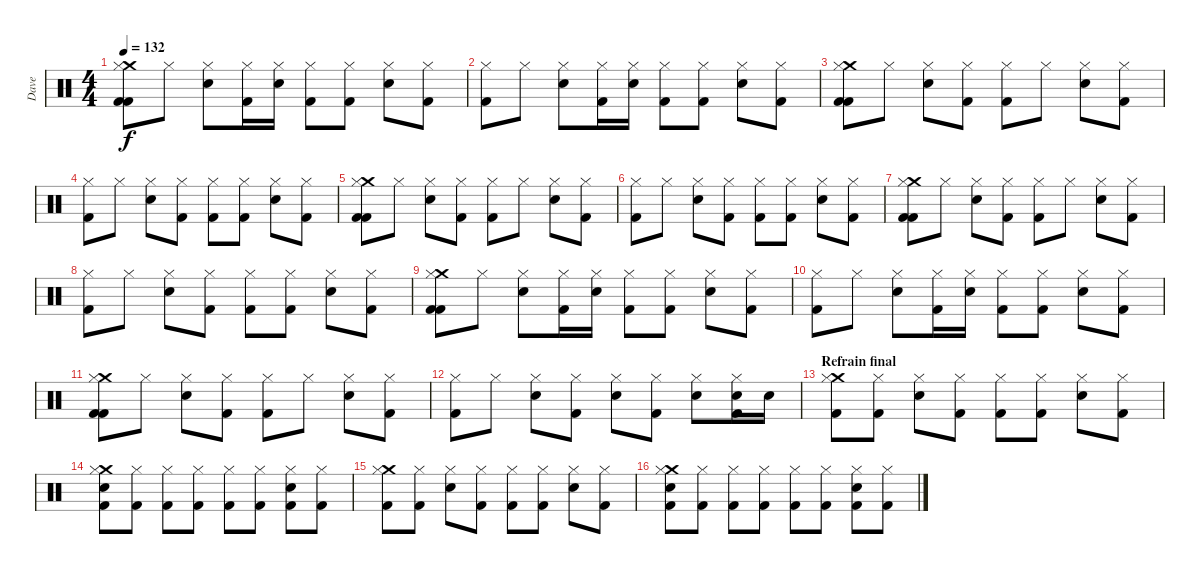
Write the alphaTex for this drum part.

\track ("Dave" "Dave") {instrument percussion}
\staff {score}
\articulation defaults
\ts (4 4)
\tempo 132
\clef neutral
\ks c
("Crash medium (hit)" "Hi-Hat (closed)" "Kick (hit) 2" "Kick (hit) 2").8{dy f} "Hi-Hat (closed)".8 ("Hi-Hat (closed)" "Electric Snare (hit)").8 ("Hi-Hat (closed)" "Kick (hit) 2").16 ("Hi-Hat (closed)" "Electric Snare (hit)").16 ("Hi-Hat (closed)" "Kick (hit) 2").8 ("Hi-Hat (closed)" "Kick (hit) 2").8 ("Hi-Hat (closed)" "Electric Snare (hit)").8 ("Hi-Hat (closed)" "Kick (hit) 2").8 |
("Hi-Hat (closed)" "Kick (hit) 2").8 "Hi-Hat (closed)".8 ("Hi-Hat (closed)" "Electric Snare (hit)").8 ("Hi-Hat (closed)" "Kick (hit) 2").16 ("Hi-Hat (closed)" "Electric Snare (hit)").16 ("Hi-Hat (closed)" "Kick (hit) 2").8 ("Hi-Hat (closed)" "Kick (hit) 2").8 ("Hi-Hat (closed)" "Electric Snare (hit)").8 ("Hi-Hat (closed)" "Kick (hit) 2").8 |
("Crash medium (hit)" "Hi-Hat (closed)" "Kick (hit) 2" "Kick (hit) 2").8 "Hi-Hat (closed)".8 ("Hi-Hat (closed)" "Electric Snare (hit)").8 ("Hi-Hat (closed)" "Kick (hit) 2").8 ("Hi-Hat (closed)" "Kick (hit) 2").8 "Hi-Hat (closed)".8 ("Hi-Hat (closed)" "Electric Snare (hit)").8 ("Hi-Hat (closed)" "Kick (hit) 2").8 |
("Hi-Hat (closed)" "Kick (hit) 2").8 "Hi-Hat (closed)".8 ("Hi-Hat (closed)" "Electric Snare (hit)").8 ("Hi-Hat (closed)" "Kick (hit) 2").8 ("Hi-Hat (closed)" "Kick (hit) 2").8 ("Hi-Hat (closed)" "Kick (hit) 2").8 ("Hi-Hat (closed)" "Electric Snare (hit)").8 ("Hi-Hat (closed)" "Kick (hit) 2").8 |
("Crash medium (hit)" "Hi-Hat (closed)" "Kick (hit) 2" "Kick (hit) 2").8 "Hi-Hat (closed)".8 ("Hi-Hat (closed)" "Electric Snare (hit)").8 ("Hi-Hat (closed)" "Kick (hit) 2").8 ("Hi-Hat (closed)" "Kick (hit) 2").8 "Hi-Hat (closed)".8 ("Hi-Hat (closed)" "Electric Snare (hit)").8 ("Hi-Hat (closed)" "Kick (hit) 2").8 |
("Hi-Hat (closed)" "Kick (hit) 2").8 "Hi-Hat (closed)".8 ("Hi-Hat (closed)" "Electric Snare (hit)").8 ("Hi-Hat (closed)" "Kick (hit) 2").8 ("Hi-Hat (closed)" "Kick (hit) 2").8 ("Hi-Hat (closed)" "Kick (hit) 2").8 ("Hi-Hat (closed)" "Electric Snare (hit)").8 ("Hi-Hat (closed)" "Kick (hit) 2").8 |
("Crash medium (hit)" "Hi-Hat (closed)" "Kick (hit) 2" "Kick (hit) 2").8 "Hi-Hat (closed)".8 ("Hi-Hat (closed)" "Electric Snare (hit)").8 ("Hi-Hat (closed)" "Kick (hit) 2").8 ("Hi-Hat (closed)" "Kick (hit) 2").8 "Hi-Hat (closed)".8 ("Hi-Hat (closed)" "Electric Snare (hit)").8 ("Hi-Hat (closed)" "Kick (hit) 2").8 |
("Hi-Hat (closed)" "Kick (hit) 2").8 "Hi-Hat (closed)".8 ("Hi-Hat (closed)" "Electric Snare (hit)").8 ("Hi-Hat (closed)" "Kick (hit) 2").8 ("Hi-Hat (closed)" "Kick (hit) 2").8 ("Hi-Hat (closed)" "Kick (hit) 2").8 ("Hi-Hat (closed)" "Electric Snare (hit)").8 ("Hi-Hat (closed)" "Kick (hit) 2").8 |
("Crash medium (hit)" "Hi-Hat (closed)" "Kick (hit) 2" "Kick (hit) 2").8 "Hi-Hat (closed)".8 ("Hi-Hat (closed)" "Electric Snare (hit)").8 ("Hi-Hat (closed)" "Kick (hit) 2").16 ("Hi-Hat (closed)" "Electric Snare (hit)").16 ("Hi-Hat (closed)" "Kick (hit) 2").8 ("Hi-Hat (closed)" "Kick (hit) 2").8 ("Hi-Hat (closed)" "Electric Snare (hit)").8 ("Hi-Hat (closed)" "Kick (hit) 2").8 |
("Hi-Hat (closed)" "Kick (hit) 2").8 "Hi-Hat (closed)".8 ("Hi-Hat (closed)" "Electric Snare (hit)").8 ("Hi-Hat (closed)" "Kick (hit) 2").16 ("Hi-Hat (closed)" "Electric Snare (hit)").16 ("Hi-Hat (closed)" "Kick (hit) 2").8 ("Hi-Hat (closed)" "Kick (hit) 2").8 ("Hi-Hat (closed)" "Electric Snare (hit)").8 ("Hi-Hat (closed)" "Kick (hit) 2").8 |
("Crash medium (hit)" "Hi-Hat (closed)" "Kick (hit) 2" "Kick (hit) 2").8 "Hi-Hat (closed)".8 ("Hi-Hat (closed)" "Electric Snare (hit)").8 ("Hi-Hat (closed)" "Kick (hit) 2").8 ("Hi-Hat (closed)" "Kick (hit) 2").8 "Hi-Hat (closed)".8 ("Hi-Hat (closed)" "Electric Snare (hit)").8 ("Hi-Hat (closed)" "Kick (hit) 2").8 |
("Hi-Hat (closed)" "Kick (hit) 2").8 "Hi-Hat (closed)".8 ("Hi-Hat (closed)" "Electric Snare (hit)").8 ("Hi-Hat (closed)" "Kick (hit) 2").8 ("Hi-Hat (closed)" "Electric Snare (hit)").8 ("Hi-Hat (closed)" "Kick (hit) 2").8 ("Hi-Hat (closed)" "Electric Snare (hit)").8 ("Hi-Hat (closed)" "Kick (hit) 2" "Electric Snare (hit)").16 "Electric Snare (hit)".16 |
\section ("" "Refrain final")
("Crash medium (hit)" "Hi-Hat (closed)" "Kick (hit) 2").8 ("Hi-Hat (closed)" "Kick (hit) 2").8 ("Hi-Hat (closed)" "Electric Snare (hit)").8 ("Hi-Hat (closed)" "Kick (hit) 2").8 ("Hi-Hat (closed)" "Kick (hit) 2").8 ("Hi-Hat (closed)" "Kick (hit) 2").8 ("Hi-Hat (closed)" "Electric Snare (hit)").8 ("Hi-Hat (closed)" "Kick (hit) 2").8 |
("Crash medium (hit)" "Hi-Hat (closed)" "Kick (hit) 2" "Electric Snare (hit)").8 ("Hi-Hat (closed)" "Kick (hit) 2").8 ("Hi-Hat (closed)" "Kick (hit) 2").8 ("Hi-Hat (closed)" "Kick (hit) 2").8 ("Hi-Hat (closed)" "Kick (hit) 2").8 ("Hi-Hat (closed)" "Kick (hit) 2").8 ("Hi-Hat (closed)" "Kick (hit) 2" "Electric Snare (hit)").8 ("Hi-Hat (closed)" "Kick (hit) 2").8 |
("Crash medium (hit)" "Hi-Hat (closed)" "Kick (hit) 2").8 ("Hi-Hat (closed)" "Kick (hit) 2").8 ("Hi-Hat (closed)" "Electric Snare (hit)").8 ("Hi-Hat (closed)" "Kick (hit) 2").8 ("Hi-Hat (closed)" "Kick (hit) 2").8 ("Hi-Hat (closed)" "Kick (hit) 2").8 ("Hi-Hat (closed)" "Electric Snare (hit)").8 ("Hi-Hat (closed)" "Kick (hit) 2").8 |
("Crash medium (hit)" "Hi-Hat (closed)" "Kick (hit) 2" "Electric Snare (hit)").8 ("Hi-Hat (closed)" "Kick (hit) 2").8 ("Hi-Hat (closed)" "Kick (hit) 2").8 ("Hi-Hat (closed)" "Kick (hit) 2").8 ("Hi-Hat (closed)" "Kick (hit) 2").8 ("Hi-Hat (closed)" "Kick (hit) 2").8 ("Hi-Hat (closed)" "Kick (hit) 2" "Electric Snare (hit)").8 ("Hi-Hat (closed)" "Kick (hit) 2").8
